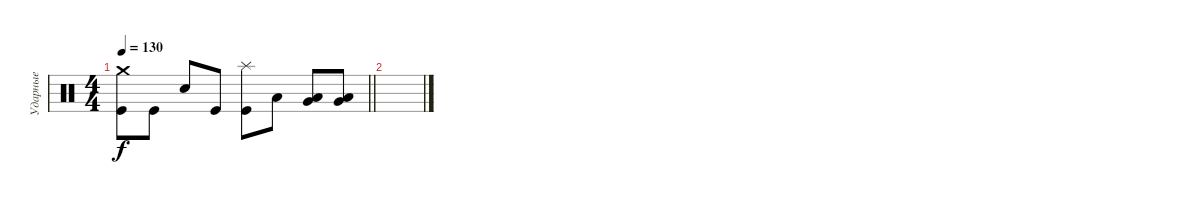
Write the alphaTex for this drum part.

\track ("Ударные" "Ударные") {instrument percussion}
\staff {score}
\articulation defaults
\ts (4 4)
\tempo 130
\clef neutral
\barLineRight lightlight
\ks c
("Crash medium (hit)" "Kick (hit)").8{dy f} "Kick (hit)".8 "Electric Snare (hit)".8 "Kick (hit)".8 ("Splash (hit)" "Kick (hit)").8 "Low Tom (hit)".8 ("Very Low Tom (hit)" "Low Floor Tom (hit)").8 ("Very Low Tom (hit)" "Low Floor Tom (hit)").8 |
\section ("" " ")
